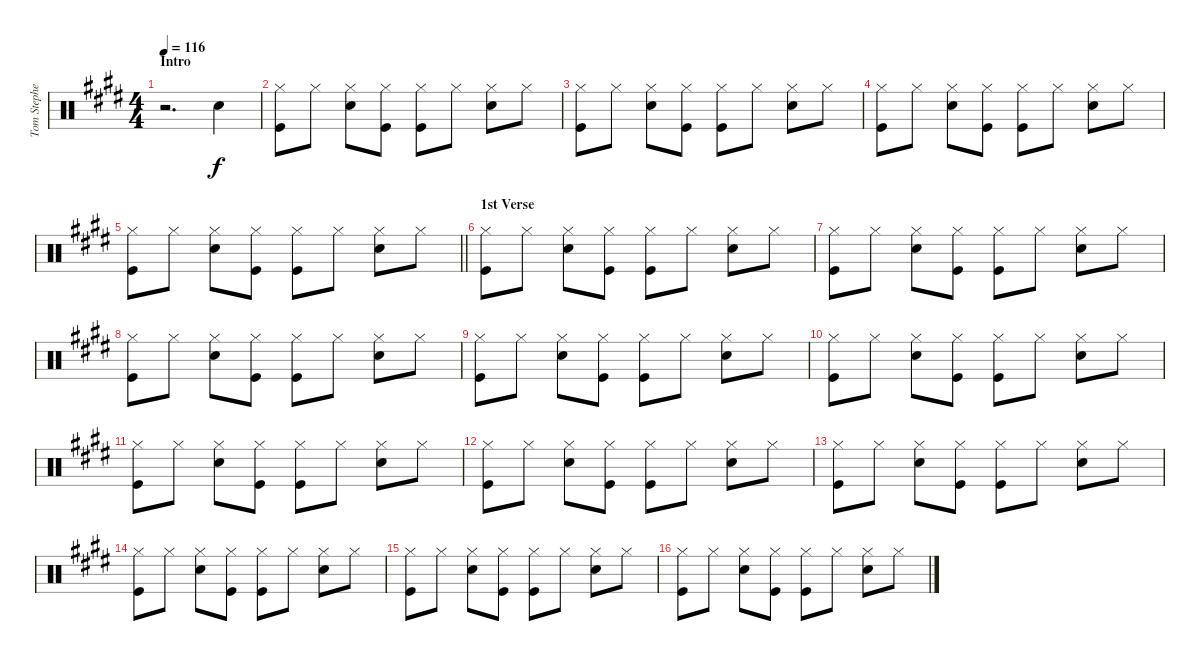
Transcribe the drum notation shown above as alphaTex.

\track ("Tom Stephen" "Tom Stephe") {instrument percussion}
\staff {score}
\articulation defaults
\ts (4 4)
\section ("" "Intro")
\tempo 116
\clef neutral
\ks e
r.2{d dy f} "Electric Snare (hit)".4 |
("Kick (hit)" "Hi-Hat (closed)").8 "Hi-Hat (closed)".8 ("Snare (hit) 2" "Hi-Hat (closed)").8 ("Kick (hit)" "Hi-Hat (closed)").8 ("Kick (hit)" "Hi-Hat (closed)").8 "Hi-Hat (closed)".8 ("Snare (hit) 2" "Hi-Hat (closed)").8 "Hi-Hat (closed)".8 |
("Kick (hit)" "Hi-Hat (closed)").8 "Hi-Hat (closed)".8 ("Snare (hit) 2" "Hi-Hat (closed)").8 ("Kick (hit)" "Hi-Hat (closed)").8 ("Kick (hit)" "Hi-Hat (closed)").8 "Hi-Hat (closed)".8 ("Snare (hit) 2" "Hi-Hat (closed)").8 "Hi-Hat (closed)".8 |
("Kick (hit)" "Hi-Hat (closed)").8 "Hi-Hat (closed)".8 ("Snare (hit) 2" "Hi-Hat (closed)").8 ("Kick (hit)" "Hi-Hat (closed)").8 ("Kick (hit)" "Hi-Hat (closed)").8 "Hi-Hat (closed)".8 ("Snare (hit) 2" "Hi-Hat (closed)").8 "Hi-Hat (closed)".8 |
\barLineRight lightlight
("Kick (hit)" "Hi-Hat (closed)").8 "Hi-Hat (closed)".8 ("Snare (hit) 2" "Hi-Hat (closed)").8 ("Kick (hit)" "Hi-Hat (closed)").8 ("Kick (hit)" "Hi-Hat (closed)").8 "Hi-Hat (closed)".8 ("Snare (hit) 2" "Hi-Hat (closed)").8 "Hi-Hat (closed)".8 |
\section ("" "1st Verse")
("Kick (hit)" "Hi-Hat (closed)").8 "Hi-Hat (closed)".8 ("Snare (hit) 2" "Hi-Hat (closed)").8 ("Kick (hit)" "Hi-Hat (closed)").8 ("Kick (hit)" "Hi-Hat (closed)").8 "Hi-Hat (closed)".8 ("Snare (hit) 2" "Hi-Hat (closed)").8 "Hi-Hat (closed)".8 |
("Kick (hit)" "Hi-Hat (closed)").8 "Hi-Hat (closed)".8 ("Snare (hit) 2" "Hi-Hat (closed)").8 ("Kick (hit)" "Hi-Hat (closed)").8 ("Kick (hit)" "Hi-Hat (closed)").8 "Hi-Hat (closed)".8 ("Snare (hit) 2" "Hi-Hat (closed)").8 "Hi-Hat (closed)".8 |
("Kick (hit)" "Hi-Hat (closed)").8 "Hi-Hat (closed)".8 ("Snare (hit) 2" "Hi-Hat (closed)").8 ("Kick (hit)" "Hi-Hat (closed)").8 ("Kick (hit)" "Hi-Hat (closed)").8 "Hi-Hat (closed)".8 ("Snare (hit) 2" "Hi-Hat (closed)").8 "Hi-Hat (closed)".8 |
("Kick (hit)" "Hi-Hat (closed)").8 "Hi-Hat (closed)".8 ("Snare (hit) 2" "Hi-Hat (closed)").8 ("Kick (hit)" "Hi-Hat (closed)").8 ("Kick (hit)" "Hi-Hat (closed)").8 "Hi-Hat (closed)".8 ("Snare (hit) 2" "Hi-Hat (closed)").8 "Hi-Hat (closed)".8 |
("Kick (hit)" "Hi-Hat (closed)").8 "Hi-Hat (closed)".8 ("Snare (hit) 2" "Hi-Hat (closed)").8 ("Kick (hit)" "Hi-Hat (closed)").8 ("Kick (hit)" "Hi-Hat (closed)").8 "Hi-Hat (closed)".8 ("Snare (hit) 2" "Hi-Hat (closed)").8 "Hi-Hat (closed)".8 |
("Kick (hit)" "Hi-Hat (closed)").8 "Hi-Hat (closed)".8 ("Snare (hit) 2" "Hi-Hat (closed)").8 ("Kick (hit)" "Hi-Hat (closed)").8 ("Kick (hit)" "Hi-Hat (closed)").8 "Hi-Hat (closed)".8 ("Snare (hit) 2" "Hi-Hat (closed)").8 "Hi-Hat (closed)".8 |
("Kick (hit)" "Hi-Hat (closed)").8 "Hi-Hat (closed)".8 ("Snare (hit) 2" "Hi-Hat (closed)").8 ("Kick (hit)" "Hi-Hat (closed)").8 ("Kick (hit)" "Hi-Hat (closed)").8 "Hi-Hat (closed)".8 ("Snare (hit) 2" "Hi-Hat (closed)").8 "Hi-Hat (closed)".8 |
("Kick (hit)" "Hi-Hat (closed)").8 "Hi-Hat (closed)".8 ("Snare (hit) 2" "Hi-Hat (closed)").8 ("Kick (hit)" "Hi-Hat (closed)").8 ("Kick (hit)" "Hi-Hat (closed)").8 "Hi-Hat (closed)".8 ("Snare (hit) 2" "Hi-Hat (closed)").8 "Hi-Hat (closed)".8 |
("Kick (hit)" "Hi-Hat (closed)").8 "Hi-Hat (closed)".8 ("Snare (hit) 2" "Hi-Hat (closed)").8 ("Kick (hit)" "Hi-Hat (closed)").8 ("Kick (hit)" "Hi-Hat (closed)").8 "Hi-Hat (closed)".8 ("Snare (hit) 2" "Hi-Hat (closed)").8 "Hi-Hat (closed)".8 |
("Kick (hit)" "Hi-Hat (closed)").8 "Hi-Hat (closed)".8 ("Snare (hit) 2" "Hi-Hat (closed)").8 ("Kick (hit)" "Hi-Hat (closed)").8 ("Kick (hit)" "Hi-Hat (closed)").8 "Hi-Hat (closed)".8 ("Snare (hit) 2" "Hi-Hat (closed)").8 "Hi-Hat (closed)".8 |
("Kick (hit)" "Hi-Hat (closed)").8 "Hi-Hat (closed)".8 ("Snare (hit) 2" "Hi-Hat (closed)").8 ("Kick (hit)" "Hi-Hat (closed)").8 ("Kick (hit)" "Hi-Hat (closed)").8 "Hi-Hat (closed)".8 ("Snare (hit) 2" "Hi-Hat (closed)").8 "Hi-Hat (closed)".8
